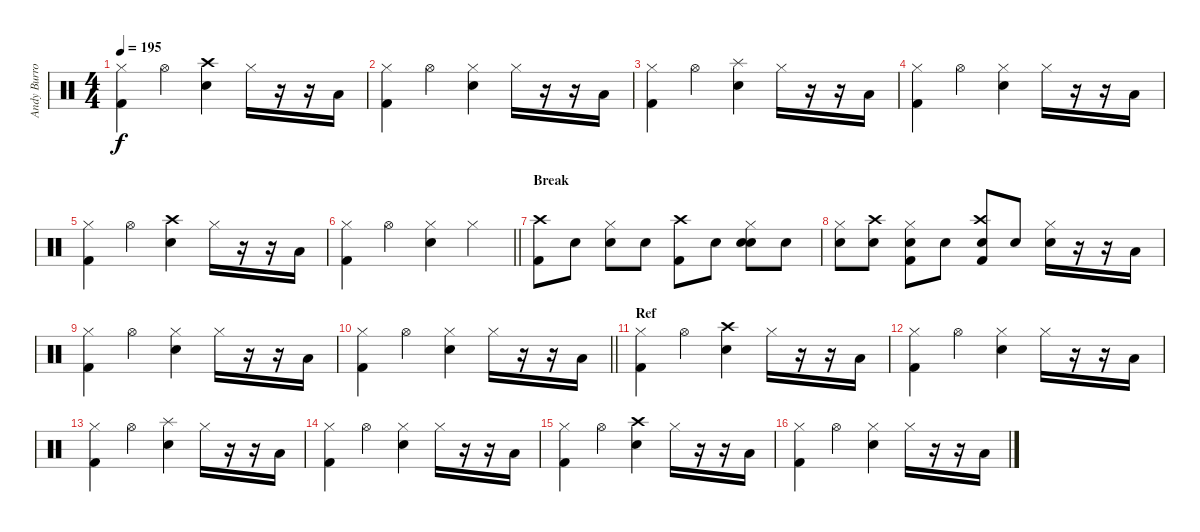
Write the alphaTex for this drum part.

\track ("Andy Burrows (drums)" "Andy Burro") {instrument percussion}
\staff {score}
\articulation defaults
\ts (4 4)
\tempo 195
\clef neutral
\ks c
("Hi-Hat (closed)" "Kick (hit) 2").4{dy f} "Hi-Hat (open)".4 ("Crash high (hit)" "Electric Snare (hit)").4 "Hi-Hat (closed)".16 r.16 r.16 "Low Floor Tom (hit)".16 |
("Hi-Hat (closed)" "Kick (hit) 2").4 "Hi-Hat (open)".4 ("Hi-Hat (closed)" "Electric Snare (hit)").4 "Hi-Hat (closed)".16 r.16 r.16 "Low Floor Tom (hit)".16 |
("Hi-Hat (closed)" "Kick (hit) 2").4 "Hi-Hat (open)".4 ("Splash (hit)" "Electric Snare (hit)").4 "Hi-Hat (closed)".16 r.16 r.16 "Low Floor Tom (hit)".16 |
("Hi-Hat (closed)" "Kick (hit) 2").4 "Hi-Hat (open)".4 ("Hi-Hat (closed)" "Electric Snare (hit)").4 "Hi-Hat (closed)".16 r.16 r.16 "Low Floor Tom (hit)".16 |
("Hi-Hat (closed)" "Kick (hit) 2").4 "Hi-Hat (open)".4 ("Crash high (hit)" "Electric Snare (hit)").4 "Hi-Hat (closed)".16 r.16 r.16 "Low Floor Tom (hit)".16 |
\barLineRight lightlight
("Hi-Hat (closed)" "Kick (hit) 2").4 "Hi-Hat (open)".4 ("Hi-Hat (closed)" "Electric Snare (hit)").4 "Hi-Hat (closed)".4 |
\section ("" "Break")
("Crash high (hit)" "Kick (hit) 2").8 "Snare (hit)".8 ("Snare (hit)" "Hi-Hat (closed)").8 "Snare (hit)".8 ("Crash high (hit)" "Kick (hit) 2").8 "Snare (hit)".8 ("Snare (hit)" "Hi-Hat (closed)" "Electric Snare (hit)").8 "Snare (hit)".8 |
("Snare (hit)" "Hi-Hat (closed)").8 ("Crash high (hit)" "Electric Snare (hit)").8 ("Snare (hit)" "Hi-Hat (closed)" "Kick (hit) 2").8 "Snare (hit)".8 ("Crash high (hit)" "Electric Snare (hit)" "Kick (hit) 2").8 "Snare (hit)".8 ("Snare (hit)" "Hi-Hat (closed)").16 r.16 r.16 "Low Floor Tom (hit)".16 |
("Hi-Hat (closed)" "Kick (hit) 2").4 "Hi-Hat (open)".4 ("Hi-Hat (closed)" "Electric Snare (hit)").4 "Hi-Hat (closed)".16 r.16 r.16 "Low Floor Tom (hit)".16 |
\barLineRight lightlight
("Hi-Hat (closed)" "Kick (hit) 2").4 "Hi-Hat (open)".4 ("Hi-Hat (closed)" "Electric Snare (hit)").4 "Hi-Hat (closed)".16 r.16 r.16 "Low Floor Tom (hit)".16 |
\section ("" "Ref")
("Hi-Hat (closed)" "Kick (hit) 2").4 "Hi-Hat (open)".4 ("Crash high (hit)" "Electric Snare (hit)").4 "Hi-Hat (closed)".16 r.16 r.16 "Low Floor Tom (hit)".16 |
("Hi-Hat (closed)" "Kick (hit) 2").4 "Hi-Hat (open)".4 ("Hi-Hat (closed)" "Electric Snare (hit)").4 "Hi-Hat (closed)".16 r.16 r.16 "Low Floor Tom (hit)".16 |
("Hi-Hat (closed)" "Kick (hit) 2").4 "Hi-Hat (open)".4 ("Splash (hit)" "Electric Snare (hit)").4 "Hi-Hat (closed)".16 r.16 r.16 "Low Floor Tom (hit)".16 |
("Hi-Hat (closed)" "Kick (hit) 2").4 "Hi-Hat (open)".4 ("Hi-Hat (closed)" "Electric Snare (hit)").4 "Hi-Hat (closed)".16 r.16 r.16 "Low Floor Tom (hit)".16 |
("Hi-Hat (closed)" "Kick (hit) 2").4 "Hi-Hat (open)".4 ("Crash high (hit)" "Electric Snare (hit)").4 "Hi-Hat (closed)".16 r.16 r.16 "Low Floor Tom (hit)".16 |
("Hi-Hat (closed)" "Kick (hit) 2").4 "Hi-Hat (open)".4 ("Hi-Hat (closed)" "Electric Snare (hit)").4 "Hi-Hat (closed)".16 r.16 r.16 "Low Floor Tom (hit)".16
